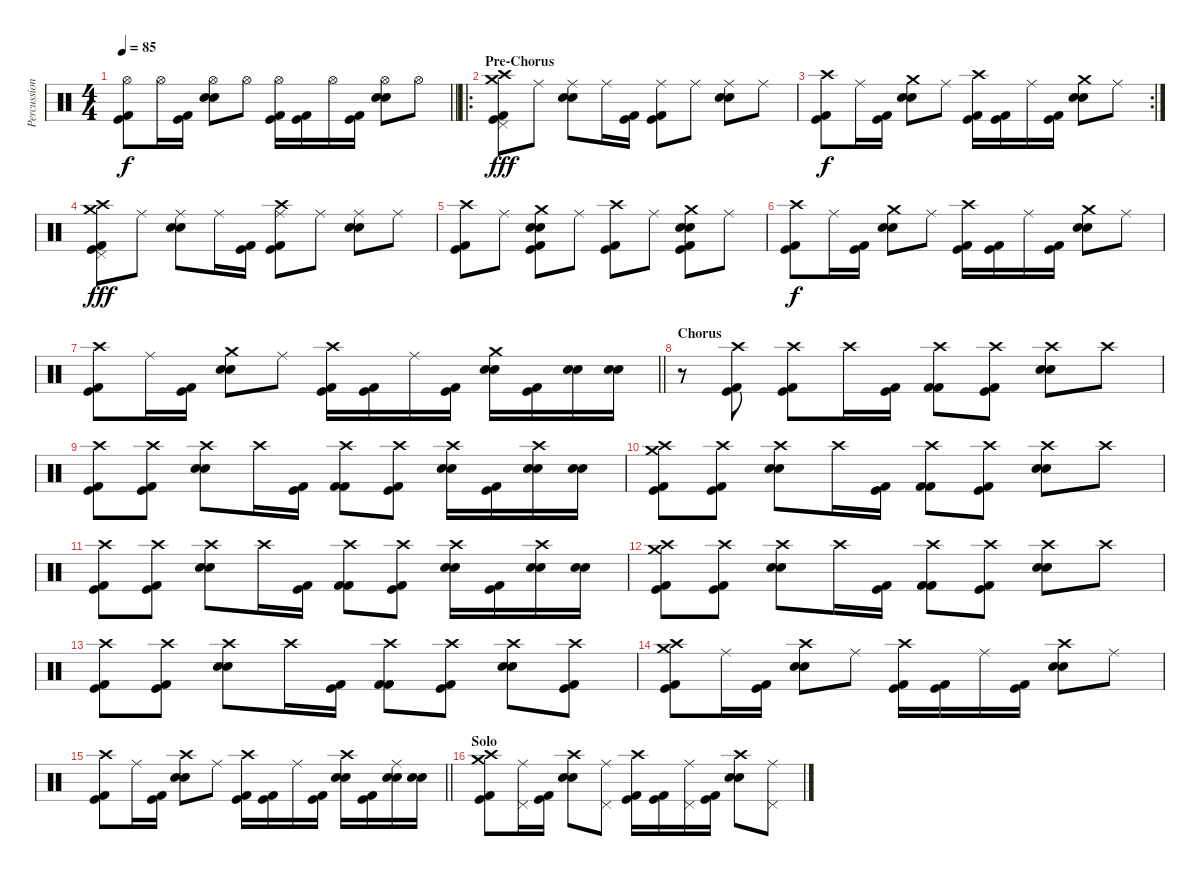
\track ("Percussion" "Percussion") {instrument percussion}
\staff {score}
\articulation defaults
\ts (4 4)
\tempo 85
\clef neutral
\barLineRight lightlight
\ks c
("Kick (hit) 2" "Kick (hit)" "Hi-Hat (open)").8{dy f} "Hi-Hat (open)".16 ("Kick (hit) 2" "Kick (hit)").16 ("Electric Snare (hit)" "Snare (hit) 2" "Hi-Hat (open)").8 "Hi-Hat (open)".8 ("Kick (hit) 2" "Kick (hit)" "Hi-Hat (open)").16 ("Kick (hit) 2" "Kick (hit)").16 "Hi-Hat (open)".16 ("Kick (hit) 2" "Kick (hit)").16 ("Electric Snare (hit)" "Snare (hit) 2" "Hi-Hat (open)").8 "Hi-Hat (open)".8 |
\ro
\section ("" "Pre-Chorus")
("Kick (hit) 2" "Kick (hit)" "Pedal Hi-Hat (hit)" "Crash medium (hit)" "Crash high (hit)").8{dy fff} "Ride (middle)".8 ("Electric Snare (hit)" "Snare (hit) 2" "Ride (middle)").8 "Ride (middle)".16 ("Kick (hit) 2" "Kick (hit)").16 ("Kick (hit) 2" "Kick (hit)" "Ride (middle)").8 "Ride (middle)".8 ("Electric Snare (hit)" "Snare (hit) 2" "Ride (middle)").8 "Ride (middle)".8 |
\rc 2
("Kick (hit) 2" "Kick (hit)" "Crash high (hit)").8{dy f} "Ride (middle)".16 ("Kick (hit) 2" "Kick (hit)").16 ("Electric Snare (hit)" "Snare (hit) 2" "Crash medium (hit)").8 "Ride (middle)".8 ("Kick (hit) 2" "Kick (hit)" "Crash high (hit)").16 ("Kick (hit) 2" "Kick (hit)").16 "Ride (middle)".16 ("Kick (hit) 2" "Kick (hit)").16 ("Electric Snare (hit)" "Snare (hit) 2" "Crash medium (hit)").8 "Ride (middle)".8 |
("Kick (hit) 2" "Kick (hit)" "Pedal Hi-Hat (hit)" "Crash medium (hit)" "Crash high (hit)").8{dy fff} "Ride (middle)".8 ("Electric Snare (hit)" "Snare (hit) 2" "Ride (middle)").8 "Ride (middle)".16 ("Kick (hit) 2" "Kick (hit)").16 ("Kick (hit) 2" "Kick (hit)" "Ride (middle)" "Crash high (hit)").8 "Ride (middle)".8 ("Electric Snare (hit)" "Snare (hit) 2" "Ride (middle)").8 "Ride (middle)".8 |
("Kick (hit) 2" "Kick (hit)" "Crash high (hit)").8 "Ride (middle)".8 ("Kick (hit) 2" "Kick (hit)" "Snare (hit) 2" "Electric Snare (hit)" "Crash medium (hit)").8 "Ride (middle)".8 ("Kick (hit) 2" "Kick (hit)" "Crash high (hit)").8 "Ride (middle)".8 ("Kick (hit) 2" "Kick (hit)" "Electric Snare (hit)" "Snare (hit) 2" "Crash medium (hit)").8 "Ride (middle)".8 |
("Kick (hit) 2" "Kick (hit)" "Crash high (hit)").8{dy f} "Ride (middle)".16 ("Kick (hit) 2" "Kick (hit)").16 ("Electric Snare (hit)" "Snare (hit) 2" "Crash medium (hit)").8 "Ride (middle)".8 ("Kick (hit) 2" "Kick (hit)" "Crash high (hit)").16 ("Kick (hit) 2" "Kick (hit)").16 "Ride (middle)".16 ("Kick (hit) 2" "Kick (hit)").16 ("Electric Snare (hit)" "Snare (hit) 2" "Crash medium (hit)").8 "Ride (middle)".8 |
\barLineRight lightlight
("Kick (hit) 2" "Kick (hit)" "Crash high (hit)").8 "Ride (middle)".16 ("Kick (hit) 2" "Kick (hit)").16 ("Electric Snare (hit)" "Snare (hit) 2" "Crash medium (hit)").8 "Ride (middle)".8 ("Kick (hit) 2" "Kick (hit)" "Crash high (hit)").16 ("Kick (hit) 2" "Kick (hit)").16 "Ride (middle)".16 ("Kick (hit) 2" "Kick (hit)").16 ("Electric Snare (hit)" "Snare (hit) 2" "Crash medium (hit)").16 ("Kick (hit) 2" "Kick (hit)").16 ("Electric Snare (hit)" "Snare (hit) 2").16 ("Electric Snare (hit)" "Snare (hit) 2").16 |
\section ("" "Chorus")
r.8 ("Kick (hit) 2" "Kick (hit)" "Crash high (hit)").8 ("Kick (hit) 2" "Kick (hit)" "Crash high (hit)").8 "Crash high (hit)".16 ("Kick (hit) 2" "Kick (hit)").16 ("Kick (hit) 2" "Kick (hit) 2" "Crash high (hit)").8 ("Kick (hit) 2" "Kick (hit)" "Crash high (hit)").8 ("Electric Snare (hit)" "Snare (hit) 2" "Crash high (hit)").8 "Crash high (hit)".8 |
("Kick (hit) 2" "Kick (hit)" "Crash high (hit)").8 ("Kick (hit) 2" "Kick (hit)" "Crash high (hit)").8 ("Electric Snare (hit)" "Snare (hit) 2" "Crash high (hit)").8 "Crash high (hit)".16 ("Kick (hit) 2" "Kick (hit)").16 ("Kick (hit) 2" "Kick (hit) 2" "Crash high (hit)").8 ("Kick (hit) 2" "Kick (hit)" "Crash high (hit)").8 ("Electric Snare (hit)" "Snare (hit) 2" "Crash high (hit)").16 ("Kick (hit) 2" "Kick (hit)").16 ("Electric Snare (hit)" "Snare (hit) 2" "Crash high (hit)").16 ("Electric Snare (hit)" "Snare (hit) 2").16 |
("Kick (hit) 2" "Kick (hit)" "Crash high (hit)" "Crash medium (hit)").8 ("Kick (hit) 2" "Kick (hit)" "Crash high (hit)").8 ("Electric Snare (hit)" "Snare (hit) 2" "Crash high (hit)").8 "Crash high (hit)".16 ("Kick (hit) 2" "Kick (hit)").16 ("Kick (hit) 2" "Kick (hit) 2" "Crash high (hit)").8 ("Kick (hit) 2" "Kick (hit)" "Crash high (hit)").8 ("Electric Snare (hit)" "Snare (hit) 2" "Crash high (hit)").8 "Crash high (hit)".8 |
("Kick (hit) 2" "Kick (hit)" "Crash high (hit)").8 ("Kick (hit) 2" "Kick (hit)" "Crash high (hit)").8 ("Electric Snare (hit)" "Snare (hit) 2" "Crash high (hit)").8 "Crash high (hit)".16 ("Kick (hit) 2" "Kick (hit)").16 ("Kick (hit) 2" "Kick (hit) 2" "Crash high (hit)").8 ("Kick (hit) 2" "Kick (hit)" "Crash high (hit)").8 ("Electric Snare (hit)" "Snare (hit) 2" "Crash high (hit)").16 ("Kick (hit) 2" "Kick (hit)").16 ("Electric Snare (hit)" "Snare (hit) 2" "Crash high (hit)").16 ("Electric Snare (hit)" "Snare (hit) 2").16 |
("Kick (hit) 2" "Kick (hit)" "Crash high (hit)" "Crash medium (hit)").8 ("Kick (hit) 2" "Kick (hit)" "Crash high (hit)").8 ("Electric Snare (hit)" "Snare (hit) 2" "Crash high (hit)").8 "Crash high (hit)".16 ("Kick (hit) 2" "Kick (hit)").16 ("Kick (hit) 2" "Kick (hit) 2" "Crash high (hit)").8 ("Kick (hit) 2" "Kick (hit)" "Crash high (hit)").8 ("Electric Snare (hit)" "Snare (hit) 2" "Crash high (hit)").8 "Crash high (hit)".8 |
("Kick (hit) 2" "Kick (hit)" "Crash high (hit)").8 ("Kick (hit) 2" "Kick (hit)" "Crash high (hit)").8 ("Electric Snare (hit)" "Snare (hit) 2" "Crash high (hit)").8 "Crash high (hit)".16 ("Kick (hit) 2" "Kick (hit)").16 ("Kick (hit) 2" "Kick (hit) 2" "Crash high (hit)").8 ("Kick (hit) 2" "Kick (hit)" "Crash high (hit)").8 ("Electric Snare (hit)" "Snare (hit) 2" "Crash high (hit)").8 ("Kick (hit) 2" "Kick (hit)" "Crash high (hit)").8 |
("Kick (hit) 2" "Kick (hit)" "Crash high (hit)" "Crash medium (hit)").8 "Ride (middle)".16 ("Kick (hit) 2" "Kick (hit)").16 ("Electric Snare (hit)" "Snare (hit) 2" "Crash high (hit)").8 "Ride (middle)".8 ("Kick (hit) 2" "Kick (hit)" "Crash high (hit)").16 ("Kick (hit) 2" "Kick (hit)").16 "Ride (middle)".16 ("Kick (hit) 2" "Kick (hit)").16 ("Electric Snare (hit)" "Snare (hit) 2" "Crash high (hit)").8 "Ride (middle)".8 |
\barLineRight lightlight
("Kick (hit) 2" "Kick (hit)" "Crash high (hit)").8 "Ride (middle)".16 ("Kick (hit) 2" "Kick (hit)").16 ("Electric Snare (hit)" "Snare (hit) 2" "Crash high (hit)").8 "Ride (middle)".8 ("Kick (hit) 2" "Kick (hit)" "Crash high (hit)").16 ("Kick (hit) 2" "Kick (hit)").16 "Ride (middle)".16 ("Kick (hit) 2" "Kick (hit)").16 ("Electric Snare (hit)" "Snare (hit) 2" "Crash high (hit)").16 ("Kick (hit) 2" "Kick (hit)").16 ("Electric Snare (hit)" "Snare (hit) 2" "Ride (middle)").16 ("Electric Snare (hit)" "Snare (hit) 2").16 |
\section ("" "Solo")
("Kick (hit) 2" "Kick (hit)" "Crash high (hit)" "Crash medium (hit)").8 ("Pedal Hi-Hat (hit)" "Ride (middle)").16 ("Kick (hit) 2" "Kick (hit)").16 ("Electric Snare (hit)" "Snare (hit) 2" "Crash high (hit)").8 ("Pedal Hi-Hat (hit)" "Ride (middle)").8 ("Kick (hit) 2" "Kick (hit)" "Crash high (hit)").16 ("Kick (hit) 2" "Kick (hit)").16 ("Pedal Hi-Hat (hit)" "Ride (middle)").16 ("Kick (hit) 2" "Kick (hit)").16 ("Electric Snare (hit)" "Snare (hit) 2" "Crash high (hit)").8 ("Pedal Hi-Hat (hit)" "Ride (middle)").8
